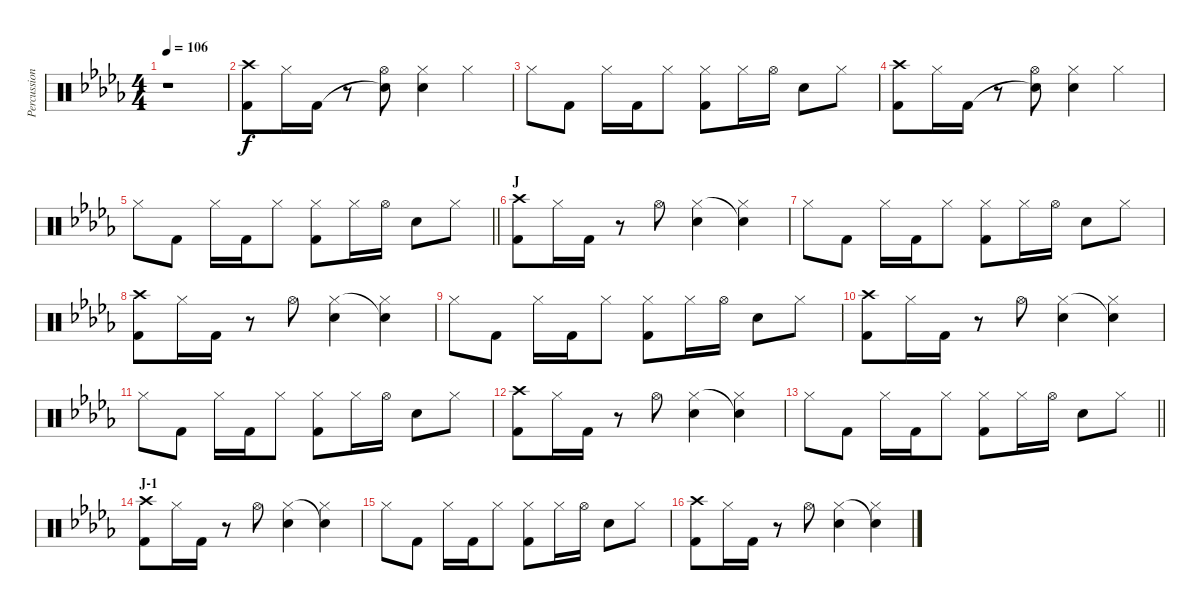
\track ("Percussion" "Percussion") {instrument percussion}
\staff {score}
\articulation defaults
\ts (4 4)
\tempo 106
\clef neutral
\ks db
r.1{dy f} |
("Crash high (hit)" "Kick (hit) 2").8 "Hi-Hat (closed)".16 "Kick (hit) 2".16 r.8 ("Snare (hit)"{t} "Hi-Hat (open)").8 ("Hi-Hat (closed)" "Electric Snare (hit)").4 "Hi-Hat (closed)".4 |
"Hi-Hat (closed)".8 "Kick (hit) 2".8 "Hi-Hat (closed)".16 "Kick (hit) 2".16 "Hi-Hat (closed)".8 ("Hi-Hat (closed)" "Kick (hit) 2").8 "Hi-Hat (closed)".16 "Hi-Hat (open)".16 "Electric Snare (hit)".8 "Hi-Hat (closed)".8 |
("Crash high (hit)" "Kick (hit) 2").8 "Hi-Hat (closed)".16 "Kick (hit) 2".16 r.8 ("Snare (hit)"{t} "Hi-Hat (open)").8 ("Hi-Hat (closed)" "Electric Snare (hit)").4 "Hi-Hat (closed)".4 |
\barLineRight lightlight "Hi-Hat (closed)".8 "Kick (hit) 2".8 "Hi-Hat (closed)".16 "Kick (hit) 2".16 "Hi-Hat (closed)".8
("Hi-Hat (closed)" "Kick (hit) 2").8 "Hi-Hat (closed)".16 "Hi-Hat (open)".16 "Electric Snare (hit)".8 "Hi-Hat (closed)".8 |
\section ("" "J")
("Crash high (hit)" "Kick (hit) 2").8 "Hi-Hat (closed)".16 "Kick (hit) 2".16 r.8 "Hi-Hat (open)".8 ("Hi-Hat (closed)" "Electric Snare (hit)").4 ("Snare (hit)"{t} "Hi-Hat (closed)").4 |
"Hi-Hat (closed)".8 "Kick (hit) 2".8 "Hi-Hat (closed)".16 "Kick (hit) 2".16 "Hi-Hat (closed)".8 ("Hi-Hat (closed)" "Kick (hit) 2").8 "Hi-Hat (closed)".16 "Hi-Hat (open)".16 "Electric Snare (hit)".8 "Hi-Hat (closed)".8 |
("Crash high (hit)" "Kick (hit) 2").8 "Hi-Hat (closed)".16 "Kick (hit) 2".16 r.8 "Hi-Hat (open)".8 ("Hi-Hat (closed)" "Electric Snare (hit)").4 ("Snare (hit)"{t} "Hi-Hat (closed)").4 |
"Hi-Hat (closed)".8 "Kick (hit) 2".8 "Hi-Hat (closed)".16 "Kick (hit) 2".16 "Hi-Hat (closed)".8 ("Hi-Hat (closed)" "Kick (hit) 2").8 "Hi-Hat (closed)".16 "Hi-Hat (open)".16 "Electric Snare (hit)".8 "Hi-Hat (closed)".8 |
("Crash high (hit)" "Kick (hit) 2").8 "Hi-Hat (closed)".16 "Kick (hit) 2".16 r.8 "Hi-Hat (open)".8 ("Hi-Hat (closed)" "Electric Snare (hit)").4 ("Snare (hit)"{t} "Hi-Hat (closed)").4 |
"Hi-Hat (closed)".8 "Kick (hit) 2".8 "Hi-Hat (closed)".16 "Kick (hit) 2".16 "Hi-Hat (closed)".8 ("Hi-Hat (closed)" "Kick (hit) 2").8 "Hi-Hat (closed)".16 "Hi-Hat (open)".16 "Electric Snare (hit)".8 "Hi-Hat (closed)".8 |
("Crash high (hit)" "Kick (hit) 2").8 "Hi-Hat (closed)".16 "Kick (hit) 2".16 r.8 "Hi-Hat (open)".8 ("Hi-Hat (closed)" "Electric Snare (hit)").4 ("Snare (hit)"{t} "Hi-Hat (closed)").4 |
\barLineRight lightlight "Hi-Hat (closed)".8 "Kick (hit) 2".8 "Hi-Hat (closed)".16 "Kick (hit) 2".16 "Hi-Hat (closed)".8
("Hi-Hat (closed)" "Kick (hit) 2").8 "Hi-Hat (closed)".16 "Hi-Hat (open)".16 "Electric Snare (hit)".8 "Hi-Hat (closed)".8 |
\section ("" "J-1")
("Crash high (hit)" "Kick (hit) 2").8 "Hi-Hat (closed)".16 "Kick (hit) 2".16 r.8 "Hi-Hat (open)".8 ("Hi-Hat (closed)" "Electric Snare (hit)").4 ("Snare (hit)"{t} "Hi-Hat (closed)").4 |
"Hi-Hat (closed)".8 "Kick (hit) 2".8 "Hi-Hat (closed)".16 "Kick (hit) 2".16 "Hi-Hat (closed)".8 ("Hi-Hat (closed)" "Kick (hit) 2").8 "Hi-Hat (closed)".16 "Hi-Hat (open)".16 "Electric Snare (hit)".8 "Hi-Hat (closed)".8 |
("Crash high (hit)" "Kick (hit) 2").8 "Hi-Hat (closed)".16 "Kick (hit) 2".16 r.8 "Hi-Hat (open)".8 ("Hi-Hat (closed)" "Electric Snare (hit)").4 ("Snare (hit)"{t} "Hi-Hat (closed)").4
